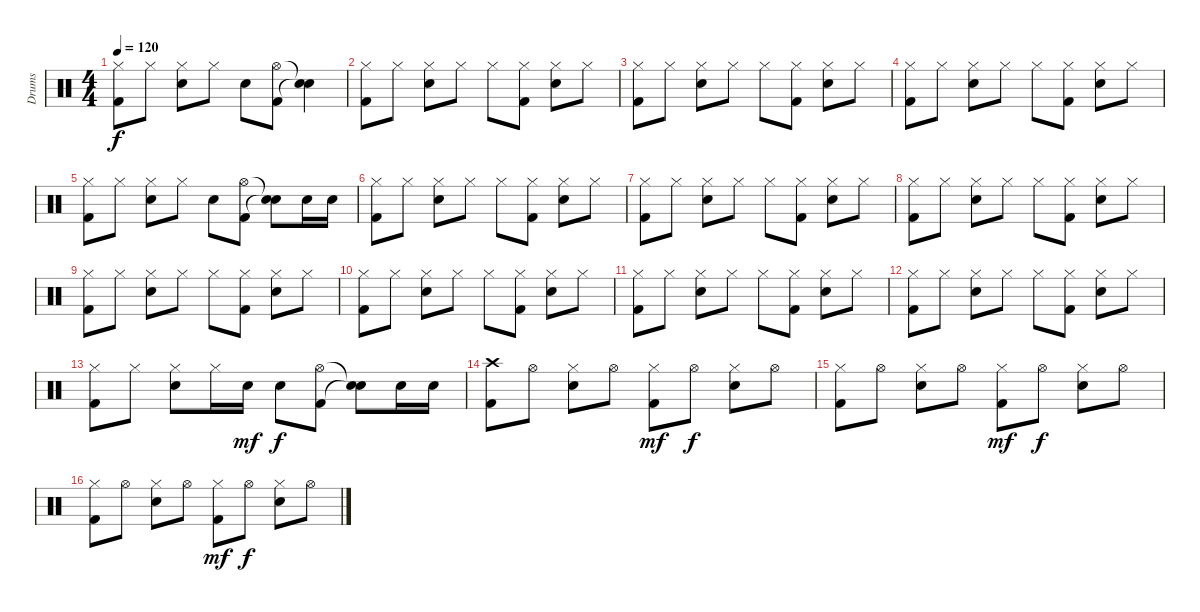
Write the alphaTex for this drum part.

\track ("Drums" "Drums") {instrument percussion}
\staff {score}
\articulation defaults
\ts (4 4)
\tempo 120
\clef neutral
\ks c
("Hi-Hat (closed)" "Kick (hit) 2").8{dy f} "Hi-Hat (closed)".8 ("Hi-Hat (closed)" "Snare (hit) 2").8 "Hi-Hat (closed)".8 "Snare (hit) 2".8 ("Hi-Hat (open)" "Kick (hit) 2").8 ("Snare (hit)"{t} "Snare (hit)"{t}).4 |
("Hi-Hat (closed)" "Kick (hit) 2").8 "Hi-Hat (closed)".8 ("Hi-Hat (closed)" "Snare (hit) 2").8 "Hi-Hat (closed)".8 "Hi-Hat (closed)".8 ("Hi-Hat (closed)" "Kick (hit) 2").8 ("Hi-Hat (closed)" "Snare (hit) 2").8 "Hi-Hat (closed)".8 |
("Hi-Hat (closed)" "Kick (hit) 2").8 "Hi-Hat (closed)".8 ("Hi-Hat (closed)" "Snare (hit) 2").8 "Hi-Hat (closed)".8 "Hi-Hat (closed)".8 ("Hi-Hat (closed)" "Kick (hit) 2").8 ("Hi-Hat (closed)" "Snare (hit) 2").8 "Hi-Hat (closed)".8 |
("Hi-Hat (closed)" "Kick (hit) 2").8 "Hi-Hat (closed)".8 ("Hi-Hat (closed)" "Snare (hit) 2").8 "Hi-Hat (closed)".8 "Hi-Hat (closed)".8 ("Hi-Hat (closed)" "Kick (hit) 2").8 ("Hi-Hat (closed)" "Snare (hit) 2").8 "Hi-Hat (closed)".8 |
("Hi-Hat (closed)" "Kick (hit) 2").8 "Hi-Hat (closed)".8 ("Hi-Hat (closed)" "Snare (hit) 2").8 "Hi-Hat (closed)".8 "Snare (hit) 2".8 ("Hi-Hat (open)" "Kick (hit) 2").8 ("Snare (hit)"{t} "Snare (hit)"{t}).8 "Snare (hit) 2".16 "Snare (hit) 2".16 |
("Hi-Hat (closed)" "Kick (hit) 2").8 "Hi-Hat (closed)".8 ("Hi-Hat (closed)" "Snare (hit) 2").8 "Hi-Hat (closed)".8 "Hi-Hat (closed)".8 ("Hi-Hat (closed)" "Kick (hit) 2").8 ("Hi-Hat (closed)" "Snare (hit) 2").8 "Hi-Hat (closed)".8 |
("Hi-Hat (closed)" "Kick (hit) 2").8 "Hi-Hat (closed)".8 ("Hi-Hat (closed)" "Snare (hit) 2").8 "Hi-Hat (closed)".8 "Hi-Hat (closed)".8 ("Hi-Hat (closed)" "Kick (hit) 2").8 ("Hi-Hat (closed)" "Snare (hit) 2").8 "Hi-Hat (closed)".8 |
("Hi-Hat (closed)" "Kick (hit) 2").8 "Hi-Hat (closed)".8 ("Hi-Hat (closed)" "Snare (hit) 2").8 "Hi-Hat (closed)".8 "Hi-Hat (closed)".8 ("Hi-Hat (closed)" "Kick (hit) 2").8 ("Hi-Hat (closed)" "Snare (hit) 2").8 "Hi-Hat (closed)".8 |
("Hi-Hat (closed)" "Kick (hit) 2").8 "Hi-Hat (closed)".8 ("Hi-Hat (closed)" "Snare (hit) 2").8 "Hi-Hat (closed)".8 "Hi-Hat (closed)".8 ("Hi-Hat (closed)" "Kick (hit) 2").8 ("Hi-Hat (closed)" "Snare (hit) 2").8 "Hi-Hat (closed)".8 |
("Hi-Hat (closed)" "Kick (hit) 2").8 "Hi-Hat (closed)".8 ("Hi-Hat (closed)" "Snare (hit) 2").8 "Hi-Hat (closed)".8 "Hi-Hat (closed)".8 ("Hi-Hat (closed)" "Kick (hit) 2").8 ("Hi-Hat (closed)" "Snare (hit) 2").8 "Hi-Hat (closed)".8 |
("Hi-Hat (closed)" "Kick (hit) 2").8 "Hi-Hat (closed)".8 ("Hi-Hat (closed)" "Snare (hit) 2").8 "Hi-Hat (closed)".8 "Hi-Hat (closed)".8 ("Hi-Hat (closed)" "Kick (hit) 2").8 ("Hi-Hat (closed)" "Snare (hit) 2").8 "Hi-Hat (closed)".8 |
("Hi-Hat (closed)" "Kick (hit) 2").8 "Hi-Hat (closed)".8 ("Hi-Hat (closed)" "Snare (hit) 2").8 "Hi-Hat (closed)".8 "Hi-Hat (closed)".8 ("Hi-Hat (closed)" "Kick (hit) 2").8 ("Hi-Hat (closed)" "Snare (hit) 2").8 "Hi-Hat (closed)".8 |
("Hi-Hat (closed)" "Kick (hit) 2").8 "Hi-Hat (closed)".8 ("Hi-Hat (closed)" "Snare (hit) 2").8 "Hi-Hat (closed)".16 "Snare (hit) 2".16{dy mf} "Snare (hit) 2".8{dy f} ("Hi-Hat (open)" "Kick (hit) 2").8 ("Snare (hit)"{t} "Snare (hit)"{t}).8 "Snare (hit) 2".16 "Snare (hit) 2".16 |
("Crash high (hit)" "Kick (hit) 2").8 "Hi-Hat (open)".8 ("Hi-Hat (closed)" "Snare (hit) 2").8 "Hi-Hat (open)".8 ("Hi-Hat (closed)" "Kick (hit) 2").8{dy mf} "Hi-Hat (open)".8{dy f} ("Hi-Hat (closed)" "Snare (hit) 2").8 "Hi-Hat (open)".8 |
("Hi-Hat (closed)" "Kick (hit) 2").8 "Hi-Hat (open)".8 ("Hi-Hat (closed)" "Snare (hit) 2").8 "Hi-Hat (open)".8 ("Hi-Hat (closed)" "Kick (hit) 2").8{dy mf} "Hi-Hat (open)".8{dy f} ("Hi-Hat (closed)" "Snare (hit) 2").8 "Hi-Hat (open)".8 |
("Hi-Hat (closed)" "Kick (hit) 2").8 "Hi-Hat (open)".8 ("Hi-Hat (closed)" "Snare (hit) 2").8 "Hi-Hat (open)".8 ("Hi-Hat (closed)" "Kick (hit) 2").8{dy mf} "Hi-Hat (open)".8{dy f} ("Hi-Hat (closed)" "Snare (hit) 2").8 "Hi-Hat (open)".8
